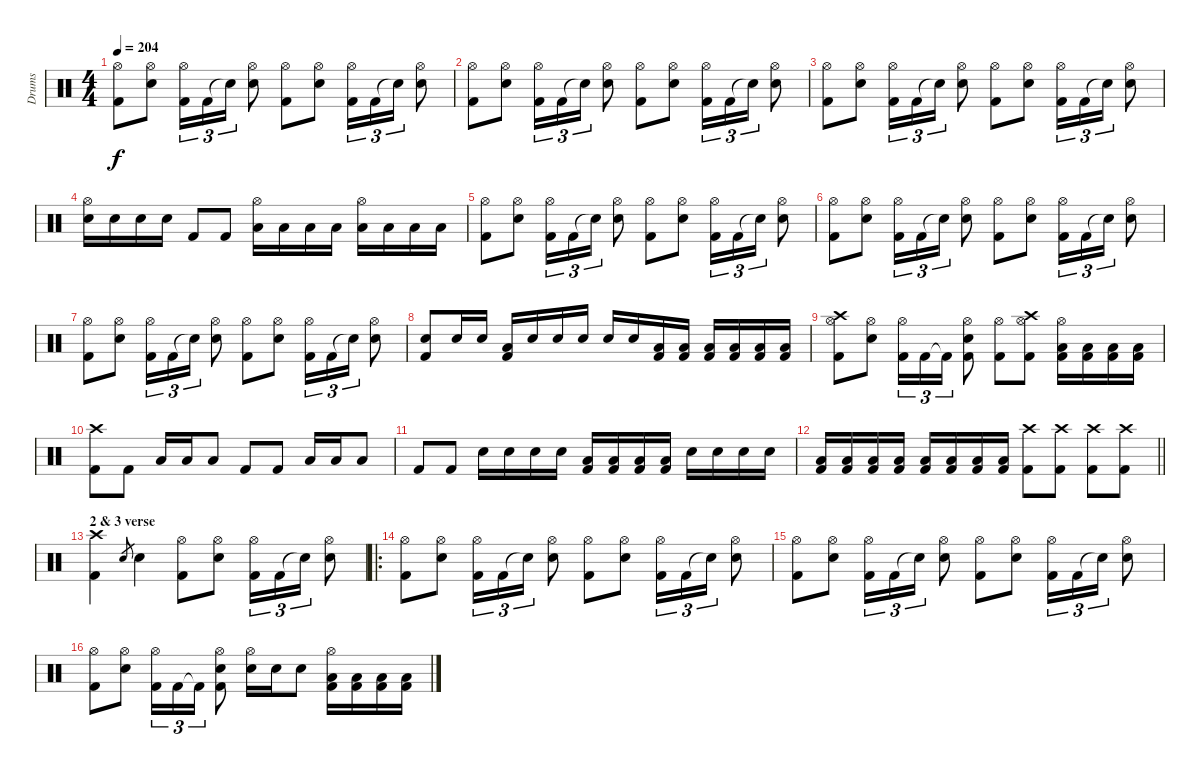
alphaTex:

\track ("Drums" "Drums") {instrument percussion}
\staff {score}
\articulation defaults
\ts (4 4)
\tempo 204
\clef neutral
\ks c
("Hi-Hat (open)" "Kick (hit) 2").8{dy f} ("Snare (hit) 2" "Hi-Hat (open)").8 ("Hi-Hat (open)" "Kick (hit) 2").16{tu (3 2)} "Kick (hit) 2".16{tu (3 2)} "Snare (hit)"{t}.16{tu (3 2)} ("Hi-Hat (open)" "Snare (hit) 2").8 ("Kick (hit) 2" "Hi-Hat (open)").8 ("Hi-Hat (open)" "Snare (hit) 2").8 ("Hi-Hat (open)" "Kick (hit) 2").16{tu (3 2)} "Kick (hit) 2".16{tu (3 2)} "Snare (hit) 2"{t}.16{tu (3 2)} ("Snare (hit) 2" "Hi-Hat (open)").8 |
("Hi-Hat (open)" "Kick (hit) 2").8 ("Snare (hit) 2" "Hi-Hat (open)").8 ("Hi-Hat (open)" "Kick (hit) 2").16{tu (3 2)} "Kick (hit) 2".16{tu (3 2)} "Snare (hit)"{t}.16{tu (3 2)} ("Hi-Hat (open)" "Snare (hit) 2").8 ("Kick (hit) 2" "Hi-Hat (open)").8 ("Hi-Hat (open)" "Snare (hit) 2").8 ("Hi-Hat (open)" "Kick (hit) 2").16{tu (3 2)} "Kick (hit) 2".16{tu (3 2)} "Snare (hit) 2"{t}.16{tu (3 2)} ("Snare (hit) 2" "Hi-Hat (open)").8 |
("Hi-Hat (open)" "Kick (hit) 2").8 ("Snare (hit) 2" "Hi-Hat (open)").8 ("Hi-Hat (open)" "Kick (hit) 2").16{tu (3 2)} "Kick (hit) 2".16{tu (3 2)} "Snare (hit)"{t}.16{tu (3 2)} ("Hi-Hat (open)" "Snare (hit) 2").8 ("Kick (hit) 2" "Hi-Hat (open)").8 ("Hi-Hat (open)" "Snare (hit) 2").8 ("Hi-Hat (open)" "Kick (hit) 2").16{tu (3 2)} "Kick (hit) 2".16{tu (3 2)} "Snare (hit) 2"{t}.16{tu (3 2)} ("Snare (hit) 2" "Hi-Hat (open)").8 |
("Hi-Hat (open)" "Snare (hit) 2").16 "Snare (hit) 2".16 "Snare (hit) 2".16 "Snare (hit) 2".16 "Kick (hit) 2".8 "Kick (hit) 2".8 ("Hi-Hat (open)" "Low Tom (hit)").16 "Low Tom (hit)".16 "Low Tom (hit)".16 "Low Tom (hit)".16 ("Hi-Hat (open)" "Low Floor Tom (hit)").16 "Low Floor Tom (hit)".16 "Low Floor Tom (hit)".16 "Low Floor Tom (hit)".16 |
("Hi-Hat (open)" "Kick (hit) 2").8 ("Snare (hit) 2" "Hi-Hat (open)").8 ("Hi-Hat (open)" "Kick (hit) 2").16{tu (3 2)} "Kick (hit) 2".16{tu (3 2)} "Snare (hit)"{t}.16{tu (3 2)} ("Hi-Hat (open)" "Snare (hit) 2").8 ("Kick (hit) 2" "Hi-Hat (open)").8 ("Hi-Hat (open)" "Snare (hit) 2").8 ("Hi-Hat (open)" "Kick (hit) 2").16{tu (3 2)} "Kick (hit) 2".16{tu (3 2)} "Snare (hit) 2"{t}.16{tu (3 2)} ("Snare (hit) 2" "Hi-Hat (open)").8 |
("Hi-Hat (open)" "Kick (hit) 2").8 ("Snare (hit) 2" "Hi-Hat (open)").8 ("Hi-Hat (open)" "Kick (hit) 2").16{tu (3 2)} "Kick (hit) 2".16{tu (3 2)} "Snare (hit)"{t}.16{tu (3 2)} ("Hi-Hat (open)" "Snare (hit) 2").8 ("Kick (hit) 2" "Hi-Hat (open)").8 ("Hi-Hat (open)" "Snare (hit) 2").8 ("Hi-Hat (open)" "Kick (hit) 2").16{tu (3 2)} "Kick (hit) 2".16{tu (3 2)} "Snare (hit) 2"{t}.16{tu (3 2)} ("Snare (hit) 2" "Hi-Hat (open)").8 |
("Hi-Hat (open)" "Kick (hit) 2").8 ("Snare (hit) 2" "Hi-Hat (open)").8 ("Hi-Hat (open)" "Kick (hit) 2").16{tu (3 2)} "Kick (hit) 2".16{tu (3 2)} "Snare (hit)"{t}.16{tu (3 2)} ("Hi-Hat (open)" "Snare (hit) 2").8 ("Kick (hit) 2" "Hi-Hat (open)").8 ("Hi-Hat (open)" "Snare (hit) 2").8 ("Hi-Hat (open)" "Kick (hit) 2").16{tu (3 2)} "Kick (hit) 2".16{tu (3 2)} "Snare (hit) 2"{t}.16{tu (3 2)} ("Snare (hit) 2" "Hi-Hat (open)").8 |
("Snare (hit) 2" "Kick (hit) 2").8 "Snare (hit) 2".16 "Snare (hit) 2".16 ("Low Floor Tom (hit)" "Kick (hit) 2").16 "Snare (hit) 2".16 "Snare (hit) 2".16 "Snare (hit) 2".16 "Snare (hit) 2".16 "Snare (hit) 2".16 ("Kick (hit) 2" "Low Floor Tom (hit)").16 ("Kick (hit) 2" "Low Floor Tom (hit)").16 ("Kick (hit) 2" "Low Floor Tom (hit)").16 ("Kick (hit) 2" "Low Floor Tom (hit)").16 ("Kick (hit) 2" "Low Floor Tom (hit)").16 ("Kick (hit) 2" "Low Floor Tom (hit)").16 |
("Hi-Hat (open)" "Kick (hit) 2" "Crash high (hit)").8 ("Snare (hit) 2" "Hi-Hat (open)").8 ("Hi-Hat (open)" "Kick (hit) 2").16{tu (3 2)} "Kick (hit) 2".16{tu (3 2)} "Kick (hit) 2"{t}.16{tu (3 2)} ("Hi-Hat (open)" "Snare (hit) 2" "Kick (hit) 2").8 ("Hi-Hat (open)" "Kick (hit) 2").8 ("Hi-Hat (open)" "Kick (hit) 2" "Crash high (hit)").8 ("Hi-Hat (open)" "Low Floor Tom (hit)" "Kick (hit) 2").16 ("Low Floor Tom (hit)" "Kick (hit) 2").16 ("Low Floor Tom (hit)" "Kick (hit) 2").16 ("Low Floor Tom (hit)" "Kick (hit) 2").16 |
("Crash high (hit)" "Kick (hit) 2").8 "Kick (hit) 2".8 "Low Floor Tom (hit)".16 "Low Floor Tom (hit)".16 "Low Floor Tom (hit)".8 "Kick (hit) 2".8 "Kick (hit) 2".8 "Low Floor Tom (hit)".16 "Low Floor Tom (hit)".16 "Low Floor Tom (hit)".8 |
"Kick (hit) 2".8 "Kick (hit) 2".8 "Snare (hit) 2".16 "Snare (hit) 2".16 "Snare (hit) 2".16 "Snare (hit) 2".16 ("Low Tom (hit)" "Kick (hit) 2").16 ("Low Floor Tom (hit)" "Kick (hit) 2").16 ("Low Tom (hit)" "Kick (hit) 2").16 ("Low Floor Tom (hit)" "Kick (hit) 2").16 "Snare (hit) 2".16 "Snare (hit) 2".16 "Snare (hit) 2".16 "Snare (hit) 2".16 |
\barLineRight lightlight
("Kick (hit) 2" "Low Tom (hit)").16 ("Kick (hit) 2" "Low Tom (hit)").16 ("Kick (hit) 2" "Low Tom (hit)").16 ("Kick (hit) 2" "Low Tom (hit)").16 ("Kick (hit) 2" "Low Floor Tom (hit)").16 ("Kick (hit) 2" "Low Floor Tom (hit)").16 ("Kick (hit) 2" "Low Floor Tom (hit)").16 ("Kick (hit) 2" "Low Floor Tom (hit)").16 ("Kick (hit) 2" "Crash high (hit)").8 ("Kick (hit) 2" "Crash high (hit)").8 ("Kick (hit) 2" "Crash high (hit)").8 ("Kick (hit) 2" "Crash high (hit)").8 |
\section ("" "2 & 3 verse")
("Kick (hit) 2" "Crash high (hit)").4 "Snare (hit) 2".8{gr} "Snare (hit) 2".4 ("Kick (hit) 2" "Hi-Hat (open)").8 ("Hi-Hat (open)" "Snare (hit) 2").8 ("Hi-Hat (open)" "Kick (hit) 2").16{tu (3 2)} "Kick (hit) 2".16{tu (3 2)} "Snare (hit) 2"{t}.16{tu (3 2)} ("Snare (hit) 2" "Hi-Hat (open)").8 |
\ro
("Hi-Hat (open)" "Kick (hit) 2").8 ("Snare (hit) 2" "Hi-Hat (open)").8 ("Hi-Hat (open)" "Kick (hit) 2").16{tu (3 2)} "Kick (hit) 2".16{tu (3 2)} "Snare (hit)"{t}.16{tu (3 2)} ("Hi-Hat (open)" "Snare (hit) 2").8 ("Kick (hit) 2" "Hi-Hat (open)").8 ("Hi-Hat (open)" "Snare (hit) 2").8 ("Hi-Hat (open)" "Kick (hit) 2").16{tu (3 2)} "Kick (hit) 2".16{tu (3 2)} "Snare (hit) 2"{t}.16{tu (3 2)} ("Snare (hit) 2" "Hi-Hat (open)").8 |
("Hi-Hat (open)" "Kick (hit) 2").8 ("Snare (hit) 2" "Hi-Hat (open)").8 ("Hi-Hat (open)" "Kick (hit) 2").16{tu (3 2)} "Kick (hit) 2".16{tu (3 2)} "Snare (hit)"{t}.16{tu (3 2)} ("Hi-Hat (open)" "Snare (hit) 2").8 ("Kick (hit) 2" "Hi-Hat (open)").8 ("Hi-Hat (open)" "Snare (hit) 2").8 ("Hi-Hat (open)" "Kick (hit) 2").16{tu (3 2)} "Kick (hit) 2".16{tu (3 2)} "Snare (hit) 2"{t}.16{tu (3 2)} ("Snare (hit) 2" "Hi-Hat (open)").8 |
("Hi-Hat (open)" "Kick (hit) 2").8 ("Snare (hit) 2" "Hi-Hat (open)").8 ("Hi-Hat (open)" "Kick (hit) 2").16{tu (3 2)} "Kick (hit) 2".16{tu (3 2)} "Kick (hit) 2"{t}.16{tu (3 2)} ("Hi-Hat (open)" "Snare (hit) 2" "Kick (hit) 2").8 ("Hi-Hat (open)" "Snare (hit) 2").16 "Snare (hit) 2".16 "Snare (hit) 2".8 ("Hi-Hat (open)" "Low Floor Tom (hit)" "Kick (hit) 2").16 ("Low Floor Tom (hit)" "Kick (hit) 2").16 ("Low Floor Tom (hit)" "Kick (hit) 2").16 ("Low Floor Tom (hit)" "Kick (hit) 2").16
